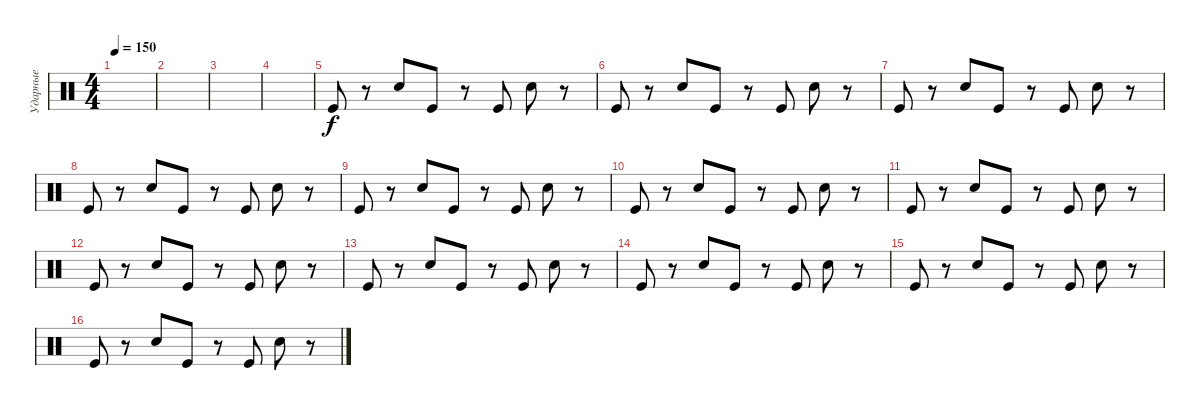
\track ("Ударные" "Ударные") {instrument percussion}
\staff {score}
\articulation defaults
\ts (4 4)
\tempo 150
\clef neutral
\ks c
|
|
|
|
"Kick (hit)".8 r.8 "Hand Clap (hit)".8 "Kick (hit)".8 r.8 "Kick (hit)".8 "Hand Clap (hit)".8 r.8 |
"Kick (hit)".8 r.8 "Hand Clap (hit)".8 "Kick (hit)".8 r.8 "Kick (hit)".8 "Hand Clap (hit)".8 r.8 |
"Kick (hit)".8 r.8 "Hand Clap (hit)".8 "Kick (hit)".8 r.8 "Kick (hit)".8 "Hand Clap (hit)".8 r.8 |
"Kick (hit)".8 r.8 "Hand Clap (hit)".8 "Kick (hit)".8 r.8 "Kick (hit)".8 "Hand Clap (hit)".8 r.8 |
"Kick (hit)".8 r.8 "Hand Clap (hit)".8 "Kick (hit)".8 r.8 "Kick (hit)".8 "Hand Clap (hit)".8 r.8 |
"Kick (hit)".8 r.8 "Hand Clap (hit)".8 "Kick (hit)".8 r.8 "Kick (hit)".8 "Hand Clap (hit)".8 r.8 |
"Kick (hit)".8 r.8 "Hand Clap (hit)".8 "Kick (hit)".8 r.8 "Kick (hit)".8 "Hand Clap (hit)".8 r.8 |
"Kick (hit)".8 r.8 "Hand Clap (hit)".8 "Kick (hit)".8 r.8 "Kick (hit)".8 "Hand Clap (hit)".8 r.8 |
"Kick (hit)".8 r.8 "Hand Clap (hit)".8 "Kick (hit)".8 r.8 "Kick (hit)".8 "Hand Clap (hit)".8 r.8 |
"Kick (hit)".8 r.8 "Hand Clap (hit)".8 "Kick (hit)".8 r.8 "Kick (hit)".8 "Hand Clap (hit)".8 r.8 |
"Kick (hit)".8 r.8 "Hand Clap (hit)".8 "Kick (hit)".8 r.8 "Kick (hit)".8 "Hand Clap (hit)".8 r.8 |
"Kick (hit)".8 r.8 "Hand Clap (hit)".8 "Kick (hit)".8 r.8 "Kick (hit)".8 "Hand Clap (hit)".8 r.8
